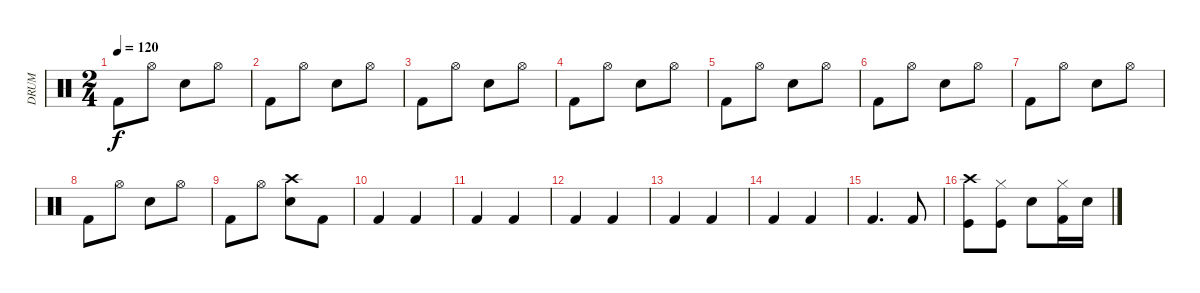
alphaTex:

\track ("DRUM" "DRUM") {instrument percussion}
\staff {score}
\articulation defaults
\ts (2 4)
\tempo 120
\clef neutral
\ks c "Kick (hit) 2".8{dy f} "Hi-Hat (open)".8 "Electric Snare (hit)".8 "Hi-Hat (open)".8
|
"Kick (hit) 2".8 "Hi-Hat (open)".8 "Electric Snare (hit)".8 "Hi-Hat (open)".8 |
"Kick (hit) 2".8 "Hi-Hat (open)".8 "Electric Snare (hit)".8 "Hi-Hat (open)".8 |
"Kick (hit) 2".8 "Hi-Hat (open)".8 "Electric Snare (hit)".8 "Hi-Hat (open)".8 |
"Kick (hit) 2".8 "Hi-Hat (open)".8 "Electric Snare (hit)".8 "Hi-Hat (open)".8 |
"Kick (hit) 2".8 "Hi-Hat (open)".8 "Electric Snare (hit)".8 "Hi-Hat (open)".8 |
"Kick (hit) 2".8 "Hi-Hat (open)".8 "Electric Snare (hit)".8 "Hi-Hat (open)".8 |
"Kick (hit) 2".8 "Hi-Hat (open)".8 "Electric Snare (hit)".8 "Hi-Hat (open)".8 |
"Kick (hit) 2".8 "Hi-Hat (open)".8 ("Crash high (hit)" "Electric Snare (hit)").8 "Kick (hit) 2".8 |
"Kick (hit) 2".4 "Kick (hit) 2".4 |
"Kick (hit) 2".4 "Kick (hit) 2".4 |
"Kick (hit) 2".4 "Kick (hit) 2".4 |
"Kick (hit) 2".4 "Kick (hit) 2".4 |
"Kick (hit) 2".4 "Kick (hit) 2".4 |
"Kick (hit) 2".4{d} "Kick (hit) 2".8 |
("Crash high (hit)" "Kick (hit)").8 ("Hi-Hat (closed)" "Kick (hit)").8 "Electric Snare (hit)".8 ("Hi-Hat (closed)" "Kick (hit) 2").16 "Snare (hit) 2".16
